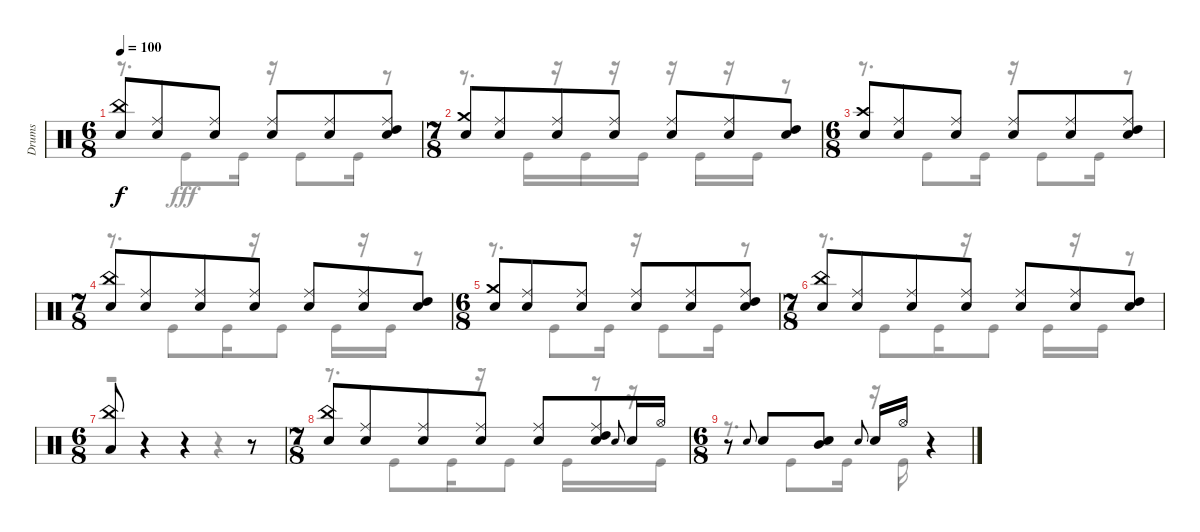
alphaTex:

\track ("Drums" "Drums") {instrument percussion}
\staff {score}
\articulation defaults
\voice
\ts (6 8)
\tempo 100
\clef neutral
\ks c
("China (hit)" "Snare (hit) 2").8{dy f} ("Ride (middle)" "Snare (hit) 2").8 ("Ride (middle)" "Snare (hit) 2").8 ("Ride (middle)" "Snare (hit) 2").8 ("Ride (middle)" "Snare (hit) 2").8 ("Ride (middle)" "High Tom (hit)" "Snare (hit) 2").8 |
\ts (7 8)
("Crash medium (hit)" "Snare (hit) 2").8 ("Ride (middle)" "Snare (hit) 2").8 ("Ride (middle)" "Snare (hit) 2").8 ("Ride (middle)" "Snare (hit) 2").8 ("Ride (middle)" "Snare (hit) 2").8 ("Ride (middle)" "Snare (hit) 2").8 ("High Tom (hit)" "Snare (hit) 2").8 |
\ts (6 8)
("Crash high (hit)" "Snare (hit) 2").8 ("Ride (middle)" "Snare (hit) 2").8 ("Ride (middle)" "Snare (hit) 2").8 ("Ride (middle)" "Snare (hit) 2").8 ("Ride (middle)" "Snare (hit) 2").8 ("Ride (middle)" "High Tom (hit)" "Snare (hit) 2").8 |
\ts (7 8)
("China (hit)" "Snare (hit) 2").8 ("Ride (middle)" "Snare (hit) 2").8 ("Ride (middle)" "Snare (hit) 2").8 ("Ride (middle)" "Snare (hit) 2").8 ("Ride (middle)" "Snare (hit) 2").8 ("Ride (middle)" "Snare (hit) 2").8 ("High Tom (hit)" "Snare (hit) 2").8 |
\ts (6 8)
("Crash medium (hit)" "Snare (hit) 2").8 ("Ride (middle)" "Snare (hit) 2").8 ("Ride (middle)" "Snare (hit) 2").8 ("Ride (middle)" "Snare (hit) 2").8 ("Ride (middle)" "Snare (hit) 2").8 ("Ride (middle)" "High Tom (hit)" "Snare (hit) 2").8 |
\ts (7 8)
("China (hit)" "Snare (hit) 2").8 ("Ride (middle)" "Snare (hit) 2").8 ("Ride (middle)" "Snare (hit) 2").8 ("Ride (middle)" "Snare (hit) 2").8 ("Ride (middle)" "Snare (hit) 2").8 ("Ride (middle)" "Snare (hit) 2").8 ("High Tom (hit)" "Snare (hit) 2").8 |
\ts (6 8)
("China (hit)" "Low Tom (hit)").8 r.4 r.4 r.8 |
\ts (7 8)
("China (hit)" "Snare (hit) 2").8 ("Ride (middle)" "Snare (hit) 2").8 ("Ride (middle)" "Snare (hit) 2").8 ("Ride (middle)" "Snare (hit) 2").8 ("Ride (middle)" "Snare (hit) 2").8 ("Ride (middle)" "High Tom (hit)" "Snare (hit) 2").8 "Snare (hit) 2".8{gr onbeat} "Snare (hit) 2".16 "Hi-Hat (open)".16 |
\ts (6 8)
r.8 "Snare (hit) 2".8{gr onbeat} "Snare (hit) 2".8 ("Mid Tom (hit)" "Snare (hit) 2").8 "Snare (hit) 2".8{gr onbeat} "Snare (hit) 2".16 "Hi-Hat (open)".16 r.4
\voice
\clef neutral
\ottava regular
\simile none
\ks c
r.8{d dy fff} "Kick (hit)".8 "Kick (hit)".16 r.16 "Kick (hit)".8 "Kick (hit)".16 r.8 |
r.8{d} "Kick (hit)".16 r.16 "Kick (hit)".16 r.16 "Kick (hit)".16 r.16 "Kick (hit)".16 r.16 "Kick (hit)".16 r.8 |
r.8{d} "Kick (hit)".8 "Kick (hit)".16 r.16 "Kick (hit)".8 "Kick (hit)".16 r.8 |
r.8{d} "Kick (hit)".8 "Kick (hit)".16 r.16 "Kick (hit)".8 "Kick (hit)".16 r.16 "Kick (hit)".16 r.8 |
r.8{d} "Kick (hit)".8 "Kick (hit)".16 r.16 "Kick (hit)".8 "Kick (hit)".16 r.8 |
r.8{d} "Kick (hit)".8 "Kick (hit)".16 r.16 "Kick (hit)".8 "Kick (hit)".16 r.16 "Kick (hit)".16 r.8 |
r.2 r.4 |
r.8{d} "Kick (hit)".8 "Kick (hit)".16 r.16 "Kick (hit)".8 "Kick (hit)".16 r.8 r.16 "Kick (hit)".16 |
r.8{d} "Kick (hit)".8 "Kick (hit)".16 r.16 "Kick (hit)".16 r.4
